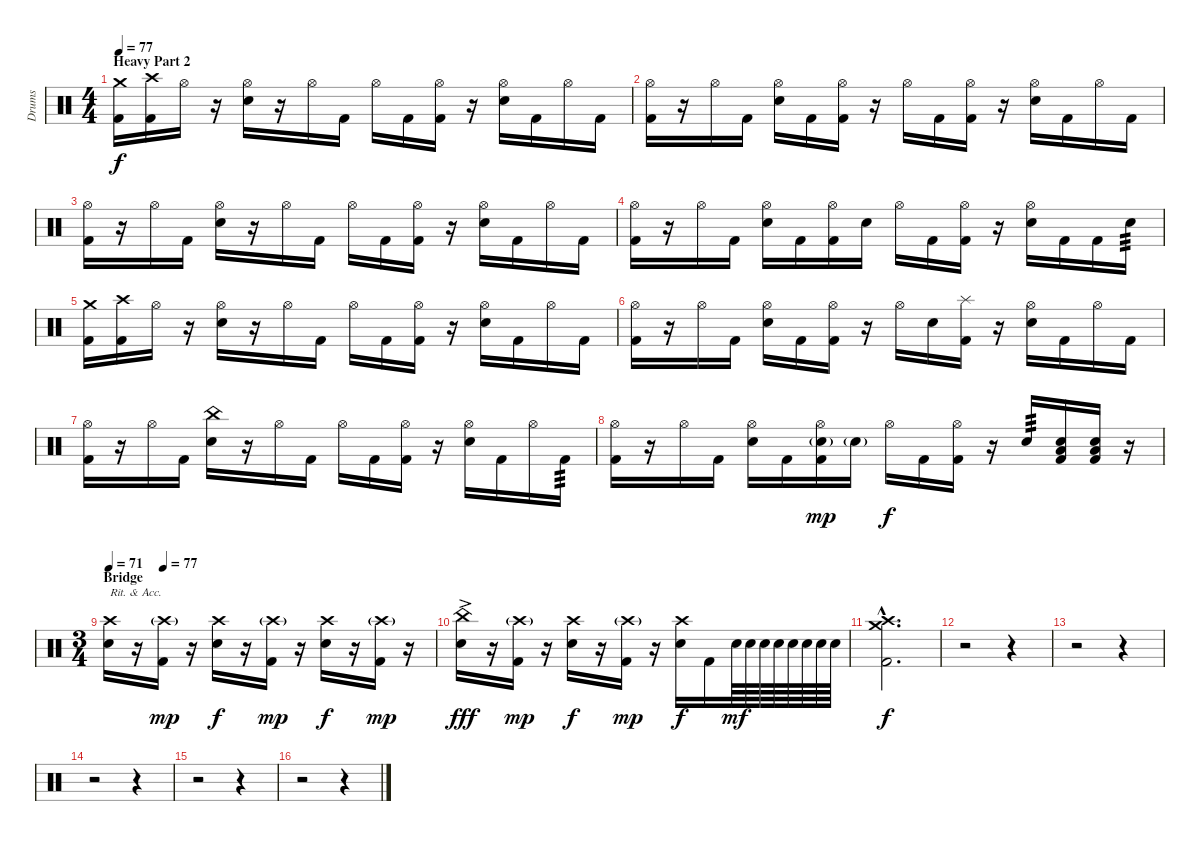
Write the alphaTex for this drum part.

\track ("Drums" "Drums") {instrument percussion}
\staff {score}
\articulation defaults
\ts (4 4)
\section ("" "Heavy Part 2")
\tempo 77
\clef neutral
\ks c
("Crash medium (hit)" "Kick (hit) 2").16{dy f} ("Crash high (hit)" "Kick (hit) 2").16 "Hi-Hat (open)".16 r.16 ("Hi-Hat (open)" "Electric Snare (hit)").16 r.16 "Hi-Hat (open)".16 "Kick (hit) 2".16 "Hi-Hat (open)".16 "Kick (hit) 2".16 ("Hi-Hat (open)" "Kick (hit) 2").16 r.16 ("Hi-Hat (open)" "Electric Snare (hit)").16 "Kick (hit) 2".16 "Hi-Hat (open)".16 "Kick (hit) 2".16 |
("Hi-Hat (open)" "Kick (hit) 2").16 r.16 "Hi-Hat (open)".16 "Kick (hit) 2".16 ("Hi-Hat (open)" "Electric Snare (hit)").16 "Kick (hit) 2".16 ("Hi-Hat (open)" "Kick (hit) 2").16 r.16 "Hi-Hat (open)".16 "Kick (hit) 2".16 ("Hi-Hat (open)" "Kick (hit) 2").16 r.16 ("Hi-Hat (open)" "Electric Snare (hit)").16 "Kick (hit) 2".16 "Hi-Hat (open)".16 "Kick (hit) 2".16 |
("Hi-Hat (open)" "Kick (hit) 2").16 r.16 "Hi-Hat (open)".16 "Kick (hit) 2".16 ("Hi-Hat (open)" "Electric Snare (hit)").16 r.16 "Hi-Hat (open)".16 "Kick (hit) 2".16 "Hi-Hat (open)".16 "Kick (hit) 2".16 ("Hi-Hat (open)" "Kick (hit) 2").16 r.16 ("Hi-Hat (open)" "Electric Snare (hit)").16 "Kick (hit) 2".16 "Hi-Hat (open)".16 "Kick (hit) 2".16 |
("Hi-Hat (open)" "Kick (hit) 2").16 r.16 "Hi-Hat (open)".16 "Kick (hit) 2".16 ("Hi-Hat (open)" "Electric Snare (hit)").16 "Kick (hit) 2".16 ("Hi-Hat (open)" "Kick (hit) 2").16 "Electric Snare (hit)".16 "Hi-Hat (open)".16 "Kick (hit) 2".16 ("Hi-Hat (open)" "Kick (hit) 2").16 r.16 ("Hi-Hat (open)" "Electric Snare (hit)").16 "Kick (hit) 2".16 "Kick (hit) 2".16 "Electric Snare (hit)".16{tp 3} |
("Crash medium (hit)" "Kick (hit) 2").16 ("Crash high (hit)" "Kick (hit) 2").16 "Hi-Hat (open)".16 r.16 ("Hi-Hat (open)" "Electric Snare (hit)").16 r.16 "Hi-Hat (open)".16 "Kick (hit) 2".16 "Hi-Hat (open)".16 "Kick (hit) 2".16 ("Hi-Hat (open)" "Kick (hit) 2").16 r.16 ("Hi-Hat (open)" "Electric Snare (hit)").16 "Kick (hit) 2".16 "Hi-Hat (open)".16 "Kick (hit) 2".16 |
("Hi-Hat (open)" "Kick (hit) 2").16 r.16 "Hi-Hat (open)".16 "Kick (hit) 2".16 ("Hi-Hat (open)" "Electric Snare (hit)").16 "Kick (hit) 2".16 ("Hi-Hat (open)" "Kick (hit) 2").16 r.16 "Hi-Hat (open)".16 "Electric Snare (hit)".16 ("Splash (hit)" "Kick (hit) 2").16 r.16 ("Hi-Hat (open)" "Electric Snare (hit)").16 "Kick (hit) 2".16 "Hi-Hat (open)".16 "Kick (hit) 2".16 |
("Hi-Hat (open)" "Kick (hit) 2").16 r.16 "Hi-Hat (open)".16 "Kick (hit) 2".16 ("China (hit)" "Electric Snare (hit)").16 r.16 "Hi-Hat (open)".16 "Kick (hit) 2".16 "Hi-Hat (open)".16 "Kick (hit) 2".16 ("Hi-Hat (open)" "Kick (hit) 2").16 r.16 ("Hi-Hat (open)" "Electric Snare (hit)").16 "Kick (hit) 2".16 "Hi-Hat (open)".16 "Kick (hit) 2".16{tp 3} |
("Hi-Hat (open)" "Kick (hit) 2").16 r.16 "Hi-Hat (open)".16 "Kick (hit) 2".16 ("Hi-Hat (open)" "Electric Snare (hit)").16 "Kick (hit) 2".16 ("Hi-Hat (open)" "Electric Snare (hit)"{g} "Kick (hit) 2").16{dy mp} "Electric Snare (hit)"{g}.16 "Hi-Hat (open)".16{dy f} "Kick (hit) 2".16 ("Hi-Hat (open)" "Kick (hit) 2").16 r.16 "Electric Snare (hit)".16{tp 3} ("Electric Snare (hit)" "Low Floor Tom (hit)" "Kick (hit) 2").16 ("Electric Snare (hit)" "Low Floor Tom (hit)" "Kick (hit) 2").16 r.16 |
\ts (3 4)
\section ("" "Bridge")
\tempo 71
\tempo (77 0.16666666666666666)
("Crash high (hit)" "Electric Snare (hit)").16{txt "Rit. & Acc."} r.16 ("Crash high (hit)"{g} "Kick (hit) 2").16{dy mp} r.16 ("Crash high (hit)" "Electric Snare (hit)").16{dy f} r.16 ("Crash high (hit)"{g} "Kick (hit) 2").16{dy mp} r.16 ("Crash high (hit)" "Electric Snare (hit)").16{dy f} r.16 ("Crash high (hit)"{g} "Kick (hit) 2").16{dy mp} r.16 |
("China (hit)"{ac} "Electric Snare (hit)").16{dy fff} r.16 ("Crash high (hit)"{g} "Kick (hit) 2").16{dy mp} r.16 ("Crash high (hit)" "Electric Snare (hit)").16{dy f} r.16 ("Crash high (hit)"{g} "Kick (hit) 2").16{dy mp} r.16 ("Crash high (hit)" "Electric Snare (hit)").16{dy f} "Kick (hit) 2".16 "Electric Snare (hit)".64{dy mf} "Electric Snare (hit)".64 "Electric Snare (hit)".64 "Electric Snare (hit)".64 "Electric Snare (hit)".64 "Electric Snare (hit)".64 "Electric Snare (hit)".64 "Electric Snare (hit)".64 |
("Crash medium (hit)"{hac} "Crash high (hit)"{hac} "Kick (hit) 2"{hac}).2{d dy f} |
r.2 r.4 |
r.2 r.4 |
r.2 r.4 |
r.2 r.4 |
r.2 r.4
